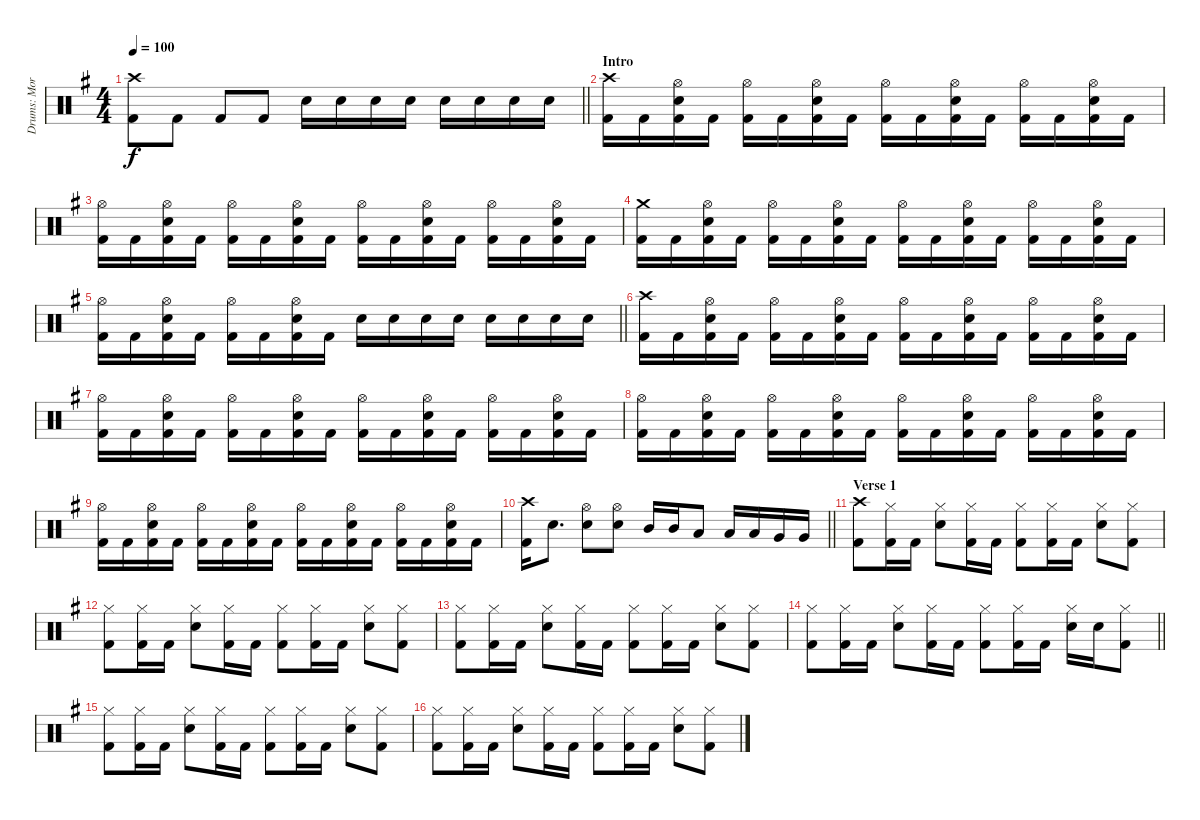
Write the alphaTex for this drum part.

\track ("Drums: Morten Færøvig" "Drums: Mor") {instrument percussion}
\staff {score}
\articulation defaults
\ts (4 4)
\tempo 100
\clef neutral
\barLineRight lightlight
\ks eminor
("Crash high (hit)" "Kick (hit) 2").8{dy f} "Kick (hit) 2".8 "Kick (hit) 2".8 "Kick (hit) 2".8 "Electric Snare (hit)".16 "Electric Snare (hit)".16 "Electric Snare (hit)".16 "Electric Snare (hit)".16 "Electric Snare (hit)".16 "Electric Snare (hit)".16 "Electric Snare (hit)".16 "Electric Snare (hit)".16 |
\section ("" "Intro")
("Crash high (hit)" "Kick (hit) 2").16 "Kick (hit) 2".16 ("Hi-Hat (open)" "Electric Snare (hit)" "Kick (hit) 2").16 "Kick (hit) 2".16 ("Hi-Hat (open)" "Kick (hit) 2").16 "Kick (hit) 2".16 ("Hi-Hat (open)" "Electric Snare (hit)" "Kick (hit) 2").16 "Kick (hit) 2".16 ("Hi-Hat (open)" "Kick (hit) 2").16 "Kick (hit) 2".16 ("Hi-Hat (open)" "Electric Snare (hit)" "Kick (hit) 2").16 "Kick (hit) 2".16 ("Hi-Hat (open)" "Kick (hit) 2").16 "Kick (hit) 2".16 ("Hi-Hat (open)" "Electric Snare (hit)" "Kick (hit) 2").16 "Kick (hit) 2".16 |
("Hi-Hat (open)" "Kick (hit) 2").16 "Kick (hit) 2".16 ("Hi-Hat (open)" "Electric Snare (hit)" "Kick (hit) 2").16 "Kick (hit) 2".16 ("Hi-Hat (open)" "Kick (hit) 2").16 "Kick (hit) 2".16 ("Hi-Hat (open)" "Electric Snare (hit)" "Kick (hit) 2").16 "Kick (hit) 2".16 ("Hi-Hat (open)" "Kick (hit) 2").16 "Kick (hit) 2".16 ("Hi-Hat (open)" "Electric Snare (hit)" "Kick (hit) 2").16 "Kick (hit) 2".16 ("Hi-Hat (open)" "Kick (hit) 2").16 "Kick (hit) 2".16 ("Hi-Hat (open)" "Electric Snare (hit)" "Kick (hit) 2").16 "Kick (hit) 2".16 |
("Crash medium (hit)" "Kick (hit) 2").16 "Kick (hit) 2".16 ("Hi-Hat (open)" "Electric Snare (hit)" "Kick (hit) 2").16 "Kick (hit) 2".16 ("Hi-Hat (open)" "Kick (hit) 2").16 "Kick (hit) 2".16 ("Hi-Hat (open)" "Electric Snare (hit)" "Kick (hit) 2").16 "Kick (hit) 2".16 ("Hi-Hat (open)" "Kick (hit) 2").16 "Kick (hit) 2".16 ("Hi-Hat (open)" "Electric Snare (hit)" "Kick (hit) 2").16 "Kick (hit) 2".16 ("Hi-Hat (open)" "Kick (hit) 2").16 "Kick (hit) 2".16 ("Hi-Hat (open)" "Electric Snare (hit)" "Kick (hit) 2").16 "Kick (hit) 2".16 |
\barLineRight lightlight
("Hi-Hat (open)" "Kick (hit) 2").16 "Kick (hit) 2".16 ("Hi-Hat (open)" "Electric Snare (hit)" "Kick (hit) 2").16 "Kick (hit) 2".16 ("Hi-Hat (open)" "Kick (hit) 2").16 "Kick (hit) 2".16 ("Hi-Hat (open)" "Electric Snare (hit)" "Kick (hit) 2").16 "Kick (hit) 2".16 "Electric Snare (hit)".16 "Electric Snare (hit)".16 "Electric Snare (hit)".16 "Electric Snare (hit)".16 "Electric Snare (hit)".16 "Electric Snare (hit)".16 "Electric Snare (hit)".16 "Electric Snare (hit)".16 |
("Crash high (hit)" "Kick (hit) 2").16 "Kick (hit) 2".16 ("Hi-Hat (open)" "Electric Snare (hit)" "Kick (hit) 2").16 "Kick (hit) 2".16 ("Hi-Hat (open)" "Kick (hit) 2").16 "Kick (hit) 2".16 ("Hi-Hat (open)" "Electric Snare (hit)" "Kick (hit) 2").16 "Kick (hit) 2".16 ("Hi-Hat (open)" "Kick (hit) 2").16 "Kick (hit) 2".16 ("Hi-Hat (open)" "Electric Snare (hit)" "Kick (hit) 2").16 "Kick (hit) 2".16 ("Hi-Hat (open)" "Kick (hit) 2").16 "Kick (hit) 2".16 ("Hi-Hat (open)" "Electric Snare (hit)" "Kick (hit) 2").16 "Kick (hit) 2".16 |
("Hi-Hat (open)" "Kick (hit) 2").16 "Kick (hit) 2".16 ("Hi-Hat (open)" "Electric Snare (hit)" "Kick (hit) 2").16 "Kick (hit) 2".16 ("Hi-Hat (open)" "Kick (hit) 2").16 "Kick (hit) 2".16 ("Hi-Hat (open)" "Electric Snare (hit)" "Kick (hit) 2").16 "Kick (hit) 2".16 ("Hi-Hat (open)" "Kick (hit) 2").16 "Kick (hit) 2".16 ("Hi-Hat (open)" "Electric Snare (hit)" "Kick (hit) 2").16 "Kick (hit) 2".16 ("Hi-Hat (open)" "Kick (hit) 2").16 "Kick (hit) 2".16 ("Hi-Hat (open)" "Electric Snare (hit)" "Kick (hit) 2").16 "Kick (hit) 2".16 |
("Hi-Hat (open)" "Kick (hit) 2").16 "Kick (hit) 2".16 ("Hi-Hat (open)" "Electric Snare (hit)" "Kick (hit) 2").16 "Kick (hit) 2".16 ("Hi-Hat (open)" "Kick (hit) 2").16 "Kick (hit) 2".16 ("Hi-Hat (open)" "Electric Snare (hit)" "Kick (hit) 2").16 "Kick (hit) 2".16 ("Hi-Hat (open)" "Kick (hit) 2").16 "Kick (hit) 2".16 ("Hi-Hat (open)" "Electric Snare (hit)" "Kick (hit) 2").16 "Kick (hit) 2".16 ("Hi-Hat (open)" "Kick (hit) 2").16 "Kick (hit) 2".16 ("Hi-Hat (open)" "Electric Snare (hit)" "Kick (hit) 2").16 "Kick (hit) 2".16 |
("Hi-Hat (open)" "Kick (hit) 2").16 "Kick (hit) 2".16 ("Hi-Hat (open)" "Electric Snare (hit)" "Kick (hit) 2").16 "Kick (hit) 2".16 ("Hi-Hat (open)" "Kick (hit) 2").16 "Kick (hit) 2".16 ("Hi-Hat (open)" "Electric Snare (hit)" "Kick (hit) 2").16 "Kick (hit) 2".16 ("Hi-Hat (open)" "Kick (hit) 2").16 "Kick (hit) 2".16 ("Hi-Hat (open)" "Electric Snare (hit)" "Kick (hit) 2").16 "Kick (hit) 2".16 ("Hi-Hat (open)" "Kick (hit) 2").16 "Kick (hit) 2".16 ("Hi-Hat (open)" "Electric Snare (hit)" "Kick (hit) 2").16 "Kick (hit) 2".16 |
\barLineRight lightlight
("Crash high (hit)" "Kick (hit) 2").16 "Electric Snare (hit)".8{d} ("Hi-Hat (open)" "Electric Snare (hit)").8 ("Hi-Hat (open)" "Electric Snare (hit)").8 "Mid Tom (hit)".16 "Mid Tom (hit)".16 "Low Tom (hit)".8 "Low Tom (hit)".16 "Low Tom (hit)".16 "Very Low Tom (hit)".16 "Very Low Tom (hit)".16 |
\section ("" "Verse 1")
("Crash high (hit)" "Kick (hit) 2").8 ("Hi-Hat (closed)" "Kick (hit) 2").16 "Kick (hit) 2".16 ("Hi-Hat (closed)" "Electric Snare (hit)").8 ("Hi-Hat (closed)" "Kick (hit) 2").16 "Kick (hit) 2".16 ("Hi-Hat (closed)" "Kick (hit) 2").8 ("Hi-Hat (closed)" "Kick (hit) 2").16 "Kick (hit) 2".16 ("Hi-Hat (closed)" "Electric Snare (hit)").8 ("Hi-Hat (closed)" "Kick (hit) 2").8 |
("Hi-Hat (closed)" "Kick (hit) 2").8 ("Hi-Hat (closed)" "Kick (hit) 2").16 "Kick (hit) 2".16 ("Hi-Hat (closed)" "Electric Snare (hit)").8 ("Hi-Hat (closed)" "Kick (hit) 2").16 "Kick (hit) 2".16 ("Hi-Hat (closed)" "Kick (hit) 2").8 ("Hi-Hat (closed)" "Kick (hit) 2").16 "Kick (hit) 2".16 ("Hi-Hat (closed)" "Electric Snare (hit)").8 ("Hi-Hat (closed)" "Kick (hit) 2").8 |
("Hi-Hat (closed)" "Kick (hit) 2").8 ("Hi-Hat (closed)" "Kick (hit) 2").16 "Kick (hit) 2".16 ("Hi-Hat (closed)" "Electric Snare (hit)").8 ("Hi-Hat (closed)" "Kick (hit) 2").16 "Kick (hit) 2".16 ("Hi-Hat (closed)" "Kick (hit) 2").8 ("Hi-Hat (closed)" "Kick (hit) 2").16 "Kick (hit) 2".16 ("Hi-Hat (closed)" "Electric Snare (hit)").8 ("Hi-Hat (closed)" "Kick (hit) 2").8 |
\barLineRight lightlight
("Hi-Hat (closed)" "Kick (hit) 2").8 ("Hi-Hat (closed)" "Kick (hit) 2").16 "Kick (hit) 2".16 ("Hi-Hat (closed)" "Electric Snare (hit)").8 ("Hi-Hat (closed)" "Kick (hit) 2").16 "Kick (hit) 2".16 ("Hi-Hat (closed)" "Kick (hit) 2").8 ("Hi-Hat (closed)" "Kick (hit) 2").16 "Kick (hit) 2".16 ("Hi-Hat (closed)" "Electric Snare (hit)").16 "Electric Snare (hit)".16 ("Hi-Hat (closed)" "Kick (hit) 2").8 |
("Hi-Hat (closed)" "Kick (hit) 2").8 ("Hi-Hat (closed)" "Kick (hit) 2").16 "Kick (hit) 2".16 ("Hi-Hat (closed)" "Electric Snare (hit)").8 ("Hi-Hat (closed)" "Kick (hit) 2").16 "Kick (hit) 2".16 ("Hi-Hat (closed)" "Kick (hit) 2").8 ("Hi-Hat (closed)" "Kick (hit) 2").16 "Kick (hit) 2".16 ("Hi-Hat (closed)" "Electric Snare (hit)").8 ("Hi-Hat (closed)" "Kick (hit) 2").8 |
("Hi-Hat (closed)" "Kick (hit) 2").8 ("Hi-Hat (closed)" "Kick (hit) 2").16 "Kick (hit) 2".16 ("Hi-Hat (closed)" "Electric Snare (hit)").8 ("Hi-Hat (closed)" "Kick (hit) 2").16 "Kick (hit) 2".16 ("Hi-Hat (closed)" "Kick (hit) 2").8 ("Hi-Hat (closed)" "Kick (hit) 2").16 "Kick (hit) 2".16 ("Hi-Hat (closed)" "Electric Snare (hit)").8 ("Hi-Hat (closed)" "Kick (hit) 2").8
